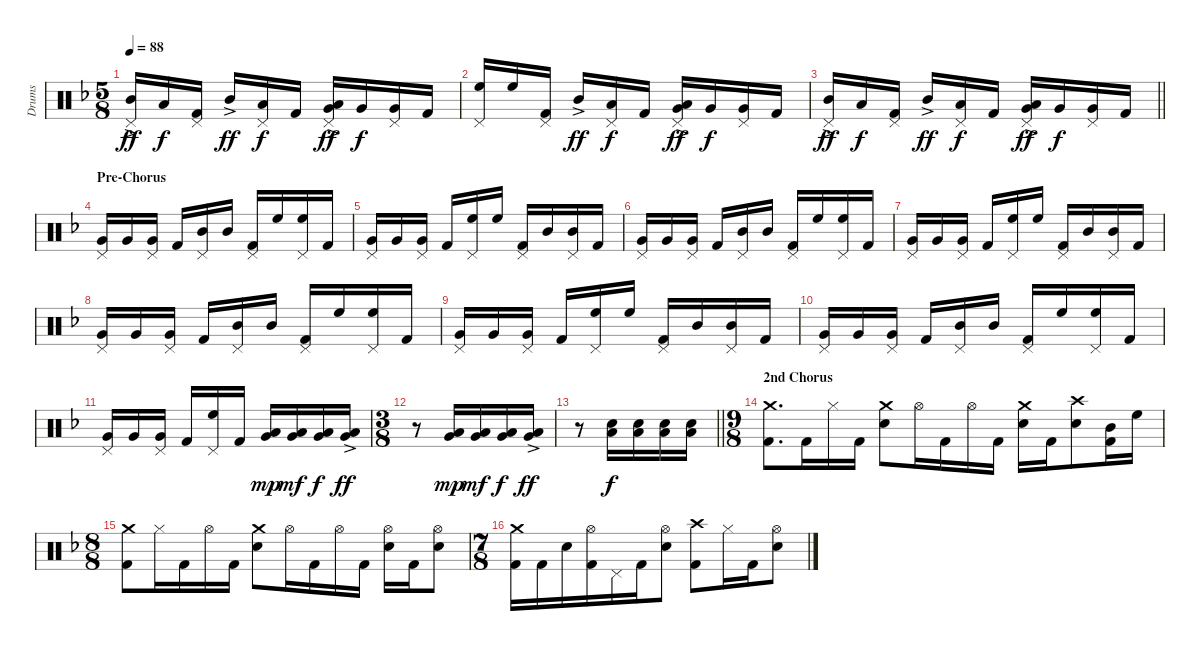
\track ("Drums" "Drums") {instrument percussion}
\staff {score}
\articulation defaults
\ts (5 8)
\tempo 88
\clef neutral
\ks dminor
("Pedal Hi-Hat (hit)" "Mid Tom (hit)"{ac}).16{dy ff} "Low Tom (hit)".16{dy f beam merge} ("Pedal Hi-Hat (hit)" "Kick (hit) 2").16{beam split} "Mid Tom (hit)"{ac}.16{dy ff beam merge} ("Pedal Hi-Hat (hit)" "Low Tom (hit)").16{dy f} "Kick (hit) 2".16{beam split} ("Pedal Hi-Hat (hit)" "Low Tom (hit)"{ac} "Very Low Tom (hit)").16{dy ff} "Very Low Tom (hit)".16{dy f beam merge} ("Pedal Hi-Hat (hit)" "Very Low Tom (hit)").16 "Kick (hit) 2".16 |
("Pedal Hi-Hat (hit)" "High Floor Tom (hit)").16 "High Floor Tom (hit)".16{beam merge} ("Pedal Hi-Hat (hit)" "Kick (hit) 2").16{beam split} "Mid Tom (hit)"{ac}.16{dy ff beam merge} ("Pedal Hi-Hat (hit)" "Low Tom (hit)").16{dy f} "Kick (hit) 2".16{beam split} ("Pedal Hi-Hat (hit)" "Low Tom (hit)"{ac} "Very Low Tom (hit)").16{dy ff} "Very Low Tom (hit)".16{dy f beam merge} ("Pedal Hi-Hat (hit)" "Very Low Tom (hit)").16 "Kick (hit) 2".16 |
\barLineRight lightlight
("Pedal Hi-Hat (hit)" "Mid Tom (hit)"{ac}).16{dy ff} "Low Tom (hit)".16{dy f beam merge} ("Pedal Hi-Hat (hit)" "Kick (hit) 2").16{beam split} "Mid Tom (hit)"{ac}.16{dy ff beam merge} ("Pedal Hi-Hat (hit)" "Low Tom (hit)").16{dy f} "Kick (hit) 2".16{beam split} ("Pedal Hi-Hat (hit)" "Low Tom (hit)"{ac} "Very Low Tom (hit)").16{dy ff} "Very Low Tom (hit)".16{dy f beam merge} ("Pedal Hi-Hat (hit)" "Very Low Tom (hit)").16 "Kick (hit) 2".16 |
\section ("" "Pre-Chorus")
("Pedal Hi-Hat (hit)" "Very Low Tom (hit)").16 "Very Low Tom (hit)".16{beam merge} ("Pedal Hi-Hat (hit)" "Very Low Tom (hit)").16{beam split} "Kick (hit) 2".16{beam merge} ("Pedal Hi-Hat (hit)" "Mid Tom (hit)").16 "Mid Tom (hit)".16{beam split} ("Pedal Hi-Hat (hit)" "Kick (hit) 2").16 "High Floor Tom (hit)".16{beam merge} ("Pedal Hi-Hat (hit)" "High Floor Tom (hit)").16 "Kick (hit) 2".16 |
("Pedal Hi-Hat (hit)" "Very Low Tom (hit)").16 "Very Low Tom (hit)".16{beam merge} ("Pedal Hi-Hat (hit)" "Very Low Tom (hit)").16{beam split} "Kick (hit) 2".16{beam merge} ("Pedal Hi-Hat (hit)" "High Floor Tom (hit)").16 "High Floor Tom (hit)".16{beam split} ("Pedal Hi-Hat (hit)" "Kick (hit) 2").16{beam merge} "Mid Tom (hit)".16{beam merge} ("Pedal Hi-Hat (hit)" "Mid Tom (hit)").16 "Kick (hit) 2".16 |
("Pedal Hi-Hat (hit)" "Very Low Tom (hit)").16 "Very Low Tom (hit)".16{beam merge} ("Pedal Hi-Hat (hit)" "Very Low Tom (hit)").16{beam split} "Kick (hit) 2".16{beam merge} ("Pedal Hi-Hat (hit)" "Mid Tom (hit)").16 "Mid Tom (hit)".16{beam split} ("Pedal Hi-Hat (hit)" "Kick (hit) 2").16 "High Floor Tom (hit)".16{beam merge} ("Pedal Hi-Hat (hit)" "High Floor Tom (hit)").16 "Kick (hit) 2".16 |
("Pedal Hi-Hat (hit)" "Very Low Tom (hit)").16 "Very Low Tom (hit)".16{beam merge} ("Pedal Hi-Hat (hit)" "Very Low Tom (hit)").16{beam split} "Kick (hit) 2".16{beam merge} ("Pedal Hi-Hat (hit)" "High Floor Tom (hit)").16 "High Floor Tom (hit)".16{beam split} ("Pedal Hi-Hat (hit)" "Kick (hit) 2").16{beam merge} "Mid Tom (hit)".16{beam merge} ("Pedal Hi-Hat (hit)" "Mid Tom (hit)").16 "Kick (hit) 2".16 |
("Pedal Hi-Hat (hit)" "Very Low Tom (hit)").16 "Very Low Tom (hit)".16{beam merge} ("Pedal Hi-Hat (hit)" "Very Low Tom (hit)").16{beam split} "Kick (hit) 2".16{beam merge} ("Pedal Hi-Hat (hit)" "Mid Tom (hit)").16 "Mid Tom (hit)".16{beam split} ("Pedal Hi-Hat (hit)" "Kick (hit) 2").16 "High Floor Tom (hit)".16{beam merge} ("Pedal Hi-Hat (hit)" "High Floor Tom (hit)").16 "Kick (hit) 2".16 |
("Pedal Hi-Hat (hit)" "Very Low Tom (hit)").16 "Very Low Tom (hit)".16{beam merge} ("Pedal Hi-Hat (hit)" "Very Low Tom (hit)").16{beam split} "Kick (hit) 2".16{beam merge} ("Pedal Hi-Hat (hit)" "High Floor Tom (hit)").16 "High Floor Tom (hit)".16{beam split} ("Pedal Hi-Hat (hit)" "Kick (hit) 2").16{beam merge} "Mid Tom (hit)".16{beam merge} ("Pedal Hi-Hat (hit)" "Mid Tom (hit)").16 "Kick (hit) 2".16 |
("Pedal Hi-Hat (hit)" "Very Low Tom (hit)").16 "Very Low Tom (hit)".16{beam merge} ("Pedal Hi-Hat (hit)" "Very Low Tom (hit)").16{beam split} "Kick (hit) 2".16{beam merge} ("Pedal Hi-Hat (hit)" "Mid Tom (hit)").16 "Mid Tom (hit)".16{beam split} ("Pedal Hi-Hat (hit)" "Kick (hit) 2").16 "High Floor Tom (hit)".16{beam merge} ("Pedal Hi-Hat (hit)" "High Floor Tom (hit)").16 "Kick (hit) 2".16 |
("Pedal Hi-Hat (hit)" "Very Low Tom (hit)").16 "Very Low Tom (hit)".16{beam merge} ("Pedal Hi-Hat (hit)" "Very Low Tom (hit)").16{beam split} "Kick (hit) 2".16{beam merge} ("Pedal Hi-Hat (hit)" "High Floor Tom (hit)").16 "Kick (hit) 2".16 ("Low Tom (hit)" "Very Low Tom (hit)").16{dy mp} ("Low Tom (hit)" "Very Low Tom (hit)").16{dy mf beam merge} ("Low Tom (hit)" "Very Low Tom (hit)").16{dy f} ("Low Tom (hit)"{ac} "Very Low Tom (hit)"{ac}).16{dy ff} |
\ts (3 8)
r.8 ("Low Tom (hit)" "Very Low Tom (hit)").16{dy mp} ("Low Tom (hit)" "Very Low Tom (hit)").16{dy mf beam merge} ("Low Tom (hit)" "Very Low Tom (hit)").16{dy f} ("Low Tom (hit)"{ac} "Very Low Tom (hit)"{ac}).16{dy ff} |
\barLineRight lightlight
r.8 ("Low Tom (hit)" "Snare (hit) 2").16{dy f} ("Low Tom (hit)" "Snare (hit) 2").16{beam merge} ("Low Tom (hit)" "Snare (hit) 2").16 ("Low Tom (hit)" "Snare (hit) 2").16 |
\ts (9 8)
\section ("" "2nd Chorus")
("Crash medium (hit)" "Kick (hit) 2").8{d} "Kick (hit) 2".16 "Hi-Hat (closed)".16 "Kick (hit) 2".16 ("Crash medium (hit)" "Snare (hit) 2").8 "Hi-Hat (open)".16 "Kick (hit) 2".16 "Hi-Hat (open)".16 "Kick (hit) 2".16 ("Crash medium (hit)" "Snare (hit) 2").16 "Kick (hit) 2".16 ("Crash high (hit)" "Snare (hit) 2").8 ("Mid Tom (hit)" "Kick (hit) 2").16 "High Floor Tom (hit)".16 |
\ts (8 8)
("Crash medium (hit)" "Kick (hit) 2").8{beam merge} "Hi-Hat (closed)".16 "Kick (hit) 2".16{beam merge} "Hi-Hat (open)".16 "Kick (hit) 2".16 ("Crash medium (hit)" "Snare (hit) 2").8{beam merge} "Hi-Hat (open)".16 "Kick (hit) 2".16{beam merge} "Hi-Hat (open)".16 "Kick (hit) 2".16 ("Hi-Hat (open)" "Snare (hit) 2").16 "Kick (hit) 2".16{beam merge} ("Hi-Hat (open)" "Snare (hit) 2").8 |
\ts (7 8)
("Crash medium (hit)" "Kick (hit) 2").16 "Kick (hit) 2".16{beam merge} "Snare (hit) 2".16 ("Hi-Hat (open)" "Kick (hit) 2").16{beam merge} "Pedal Hi-Hat (hit)".16 "Kick (hit) 2".16{beam merge} ("Hi-Hat (open)" "Snare (hit) 2").8{beam split} ("Crash high (hit)" "Kick (hit) 2").8{beam merge} "Hi-Hat (closed)".16 "Kick (hit) 2".16{beam merge} ("Hi-Hat (open)" "Snare (hit) 2").8
